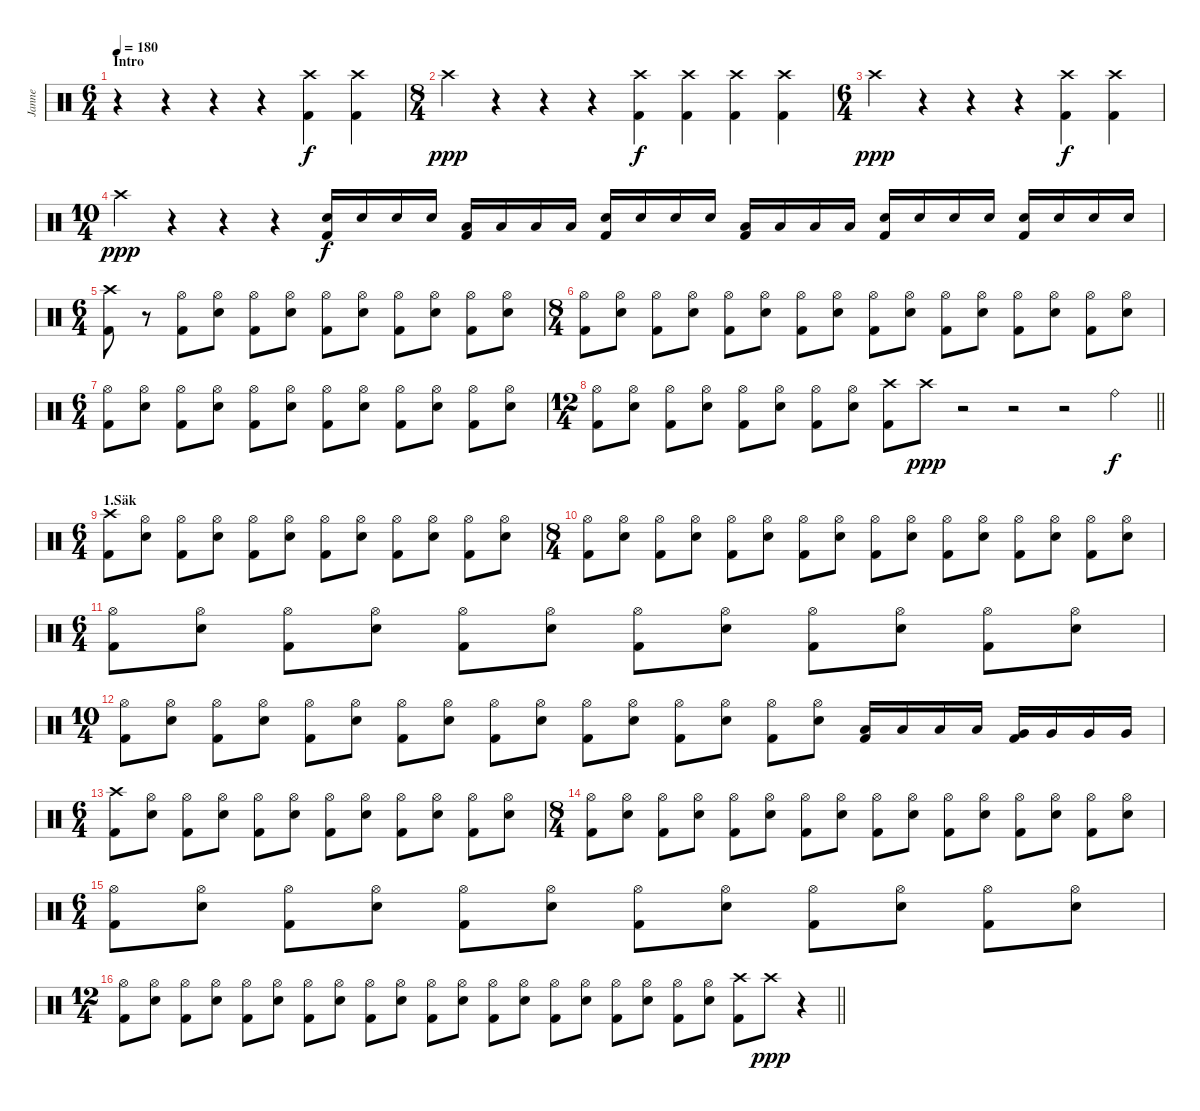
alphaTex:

\track ("Janne" "Janne") {instrument percussion}
\staff {score}
\articulation defaults
\ts (6 4)
\section ("" "Intro")
\tempo 180
\clef neutral
\ks c
r.4{dy f} r.4 r.4 r.4 ("Crash high (hit)" "Kick (hit) 2").4 ("Crash high (hit)" "Kick (hit) 2").4 |
\ts (8 4)
"Crash high (hit)".4{dy ppp} r.4 r.4 r.4 ("Crash high (hit)" "Kick (hit) 2").4{dy f} ("Crash high (hit)" "Kick (hit) 2").4 ("Crash high (hit)" "Kick (hit) 2").4 ("Crash high (hit)" "Kick (hit) 2").4 |
\ts (6 4)
"Crash high (hit)".4{dy ppp} r.4 r.4 r.4 ("Crash high (hit)" "Kick (hit) 2").4{dy f} ("Crash high (hit)" "Kick (hit) 2").4 |
\ts (10 4)
"Crash high (hit)".4{dy ppp} r.4 r.4 r.4 ("Electric Snare (hit)" "Kick (hit) 2").16{dy f} "Electric Snare (hit)".16 "Electric Snare (hit)".16 "Electric Snare (hit)".16 ("Low Tom (hit)" "Kick (hit) 2").16 "Low Tom (hit)".16 "Low Tom (hit)".16 "Low Tom (hit)".16 ("Electric Snare (hit)" "Kick (hit) 2").16 "Electric Snare (hit)".16 "Electric Snare (hit)".16 "Electric Snare (hit)".16 ("Low Tom (hit)" "Kick (hit) 2").16 "Low Tom (hit)".16 "Low Tom (hit)".16 "Low Tom (hit)".16 ("Electric Snare (hit)" "Kick (hit) 2").16 "Electric Snare (hit)".16 "Electric Snare (hit)".16 "Electric Snare (hit)".16 ("Electric Snare (hit)" "Kick (hit) 2").16 "Electric Snare (hit)".16 "Electric Snare (hit)".16 "Electric Snare (hit)".16 |
\ts (6 4)
("Crash high (hit)" "Kick (hit) 2").8 r.8 ("Hi-Hat (open)" "Kick (hit) 2").8 ("Hi-Hat (open)" "Electric Snare (hit)").8 ("Hi-Hat (open)" "Kick (hit) 2").8 ("Hi-Hat (open)" "Electric Snare (hit)").8 ("Hi-Hat (open)" "Kick (hit) 2").8 ("Hi-Hat (open)" "Electric Snare (hit)").8 ("Hi-Hat (open)" "Kick (hit) 2").8 ("Hi-Hat (open)" "Electric Snare (hit)").8 ("Hi-Hat (open)" "Kick (hit) 2").8 ("Hi-Hat (open)" "Electric Snare (hit)").8 |
\ts (8 4)
("Hi-Hat (open)" "Kick (hit) 2").8 ("Hi-Hat (open)" "Electric Snare (hit)").8 ("Hi-Hat (open)" "Kick (hit) 2").8 ("Hi-Hat (open)" "Electric Snare (hit)").8 ("Hi-Hat (open)" "Kick (hit) 2").8 ("Hi-Hat (open)" "Electric Snare (hit)").8 ("Hi-Hat (open)" "Kick (hit) 2").8 ("Hi-Hat (open)" "Electric Snare (hit)").8 ("Hi-Hat (open)" "Kick (hit) 2").8 ("Hi-Hat (open)" "Electric Snare (hit)").8 ("Hi-Hat (open)" "Kick (hit) 2").8 ("Hi-Hat (open)" "Electric Snare (hit)").8 ("Hi-Hat (open)" "Kick (hit) 2").8 ("Hi-Hat (open)" "Electric Snare (hit)").8 ("Hi-Hat (open)" "Kick (hit) 2").8 ("Hi-Hat (open)" "Electric Snare (hit)").8 |
\ts (6 4)
("Hi-Hat (open)" "Kick (hit) 2").8 ("Hi-Hat (open)" "Electric Snare (hit)").8 ("Hi-Hat (open)" "Kick (hit) 2").8 ("Hi-Hat (open)" "Electric Snare (hit)").8 ("Hi-Hat (open)" "Kick (hit) 2").8 ("Hi-Hat (open)" "Electric Snare (hit)").8 ("Hi-Hat (open)" "Kick (hit) 2").8 ("Hi-Hat (open)" "Electric Snare (hit)").8 ("Hi-Hat (open)" "Kick (hit) 2").8 ("Hi-Hat (open)" "Electric Snare (hit)").8 ("Hi-Hat (open)" "Kick (hit) 2").8 ("Hi-Hat (open)" "Electric Snare (hit)").8 |
\ts (12 4)
\barLineRight lightlight
("Hi-Hat (open)" "Kick (hit) 2").8 ("Hi-Hat (open)" "Electric Snare (hit)").8 ("Hi-Hat (open)" "Kick (hit) 2").8 ("Hi-Hat (open)" "Electric Snare (hit)").8 ("Hi-Hat (open)" "Kick (hit) 2").8 ("Hi-Hat (open)" "Electric Snare (hit)").8 ("Hi-Hat (open)" "Kick (hit) 2").8 ("Hi-Hat (open)" "Electric Snare (hit)").8 ("Crash high (hit)" "Kick (hit) 2").8 "Crash high (hit)".8{dy ppp} r.2 r.2 r.2 "Ride (bell)".4{dy f} |
\ts (6 4)
\section ("" "1.Säk")
("Crash high (hit)" "Kick (hit) 2").8 ("Hi-Hat (open)" "Electric Snare (hit)").8 ("Hi-Hat (open)" "Kick (hit) 2").8 ("Hi-Hat (open)" "Electric Snare (hit)").8 ("Hi-Hat (open)" "Kick (hit) 2").8 ("Hi-Hat (open)" "Electric Snare (hit)").8 ("Hi-Hat (open)" "Kick (hit) 2").8 ("Hi-Hat (open)" "Electric Snare (hit)").8 ("Hi-Hat (open)" "Kick (hit) 2").8 ("Hi-Hat (open)" "Electric Snare (hit)").8 ("Hi-Hat (open)" "Kick (hit) 2").8 ("Hi-Hat (open)" "Electric Snare (hit)").8 |
\ts (8 4)
("Hi-Hat (open)" "Kick (hit) 2").8 ("Hi-Hat (open)" "Electric Snare (hit)").8 ("Hi-Hat (open)" "Kick (hit) 2").8 ("Hi-Hat (open)" "Electric Snare (hit)").8 ("Hi-Hat (open)" "Kick (hit) 2").8 ("Hi-Hat (open)" "Electric Snare (hit)").8 ("Hi-Hat (open)" "Kick (hit) 2").8 ("Hi-Hat (open)" "Electric Snare (hit)").8 ("Hi-Hat (open)" "Kick (hit) 2").8 ("Hi-Hat (open)" "Electric Snare (hit)").8 ("Hi-Hat (open)" "Kick (hit) 2").8 ("Hi-Hat (open)" "Electric Snare (hit)").8 ("Hi-Hat (open)" "Kick (hit) 2").8 ("Hi-Hat (open)" "Electric Snare (hit)").8 ("Hi-Hat (open)" "Kick (hit) 2").8 ("Hi-Hat (open)" "Electric Snare (hit)").8 |
\ts (6 4)
("Hi-Hat (open)" "Kick (hit) 2").8 ("Hi-Hat (open)" "Electric Snare (hit)").8 ("Hi-Hat (open)" "Kick (hit) 2").8 ("Hi-Hat (open)" "Electric Snare (hit)").8 ("Hi-Hat (open)" "Kick (hit) 2").8 ("Hi-Hat (open)" "Electric Snare (hit)").8 ("Hi-Hat (open)" "Kick (hit) 2").8 ("Hi-Hat (open)" "Electric Snare (hit)").8 ("Hi-Hat (open)" "Kick (hit) 2").8 ("Hi-Hat (open)" "Electric Snare (hit)").8 ("Hi-Hat (open)" "Kick (hit) 2").8 ("Hi-Hat (open)" "Electric Snare (hit)").8 |
\ts (10 4)
("Hi-Hat (open)" "Kick (hit) 2").8 ("Hi-Hat (open)" "Electric Snare (hit)").8 ("Hi-Hat (open)" "Kick (hit) 2").8 ("Hi-Hat (open)" "Electric Snare (hit)").8 ("Hi-Hat (open)" "Kick (hit) 2").8 ("Hi-Hat (open)" "Electric Snare (hit)").8 ("Hi-Hat (open)" "Kick (hit) 2").8 ("Hi-Hat (open)" "Electric Snare (hit)").8 ("Hi-Hat (open)" "Kick (hit) 2").8 ("Hi-Hat (open)" "Electric Snare (hit)").8 ("Hi-Hat (open)" "Kick (hit) 2").8 ("Hi-Hat (open)" "Electric Snare (hit)").8 ("Hi-Hat (open)" "Kick (hit) 2").8 ("Hi-Hat (open)" "Electric Snare (hit)").8 ("Hi-Hat (open)" "Kick (hit) 2").8 ("Hi-Hat (open)" "Electric Snare (hit)").8 ("Low Tom (hit)" "Kick (hit) 2").16 "Low Tom (hit)".16 "Low Tom (hit)".16 "Low Tom (hit)".16 ("Very Low Tom (hit)" "Kick (hit) 2").16 "Very Low Tom (hit)".16 "Very Low Tom (hit)".16 "Very Low Tom (hit)".16 |
\ts (6 4)
("Crash high (hit)" "Kick (hit) 2").8 ("Hi-Hat (open)" "Electric Snare (hit)").8 ("Hi-Hat (open)" "Kick (hit) 2").8 ("Hi-Hat (open)" "Electric Snare (hit)").8 ("Hi-Hat (open)" "Kick (hit) 2").8 ("Hi-Hat (open)" "Electric Snare (hit)").8 ("Hi-Hat (open)" "Kick (hit) 2").8 ("Hi-Hat (open)" "Electric Snare (hit)").8 ("Hi-Hat (open)" "Kick (hit) 2").8 ("Hi-Hat (open)" "Electric Snare (hit)").8 ("Hi-Hat (open)" "Kick (hit) 2").8 ("Hi-Hat (open)" "Electric Snare (hit)").8 |
\ts (8 4)
("Hi-Hat (open)" "Kick (hit) 2").8 ("Hi-Hat (open)" "Electric Snare (hit)").8 ("Hi-Hat (open)" "Kick (hit) 2").8 ("Hi-Hat (open)" "Electric Snare (hit)").8 ("Hi-Hat (open)" "Kick (hit) 2").8 ("Hi-Hat (open)" "Electric Snare (hit)").8 ("Hi-Hat (open)" "Kick (hit) 2").8 ("Hi-Hat (open)" "Electric Snare (hit)").8 ("Hi-Hat (open)" "Kick (hit) 2").8 ("Hi-Hat (open)" "Electric Snare (hit)").8 ("Hi-Hat (open)" "Kick (hit) 2").8 ("Hi-Hat (open)" "Electric Snare (hit)").8 ("Hi-Hat (open)" "Kick (hit) 2").8 ("Hi-Hat (open)" "Electric Snare (hit)").8 ("Hi-Hat (open)" "Kick (hit) 2").8 ("Hi-Hat (open)" "Electric Snare (hit)").8 |
\ts (6 4)
("Hi-Hat (open)" "Kick (hit) 2").8 ("Hi-Hat (open)" "Electric Snare (hit)").8 ("Hi-Hat (open)" "Kick (hit) 2").8 ("Hi-Hat (open)" "Electric Snare (hit)").8 ("Hi-Hat (open)" "Kick (hit) 2").8 ("Hi-Hat (open)" "Electric Snare (hit)").8 ("Hi-Hat (open)" "Kick (hit) 2").8 ("Hi-Hat (open)" "Electric Snare (hit)").8 ("Hi-Hat (open)" "Kick (hit) 2").8 ("Hi-Hat (open)" "Electric Snare (hit)").8 ("Hi-Hat (open)" "Kick (hit) 2").8 ("Hi-Hat (open)" "Electric Snare (hit)").8 |
\ts (12 4)
\barLineRight lightlight
("Hi-Hat (open)" "Kick (hit) 2").8 ("Hi-Hat (open)" "Electric Snare (hit)").8 ("Hi-Hat (open)" "Kick (hit) 2").8 ("Hi-Hat (open)" "Electric Snare (hit)").8 ("Hi-Hat (open)" "Kick (hit) 2").8 ("Hi-Hat (open)" "Electric Snare (hit)").8 ("Hi-Hat (open)" "Kick (hit) 2").8 ("Hi-Hat (open)" "Electric Snare (hit)").8 ("Hi-Hat (open)" "Kick (hit) 2").8 ("Hi-Hat (open)" "Electric Snare (hit)").8 ("Hi-Hat (open)" "Kick (hit) 2").8 ("Hi-Hat (open)" "Electric Snare (hit)").8 ("Hi-Hat (open)" "Kick (hit) 2").8 ("Hi-Hat (open)" "Electric Snare (hit)").8 ("Hi-Hat (open)" "Kick (hit) 2").8 ("Hi-Hat (open)" "Electric Snare (hit)").8 ("Hi-Hat (open)" "Kick (hit) 2").8 ("Hi-Hat (open)" "Electric Snare (hit)").8 ("Hi-Hat (open)" "Kick (hit) 2").8 ("Hi-Hat (open)" "Electric Snare (hit)").8 ("Crash high (hit)" "Kick (hit) 2").8 "Crash high (hit)".8{dy ppp} r.4
